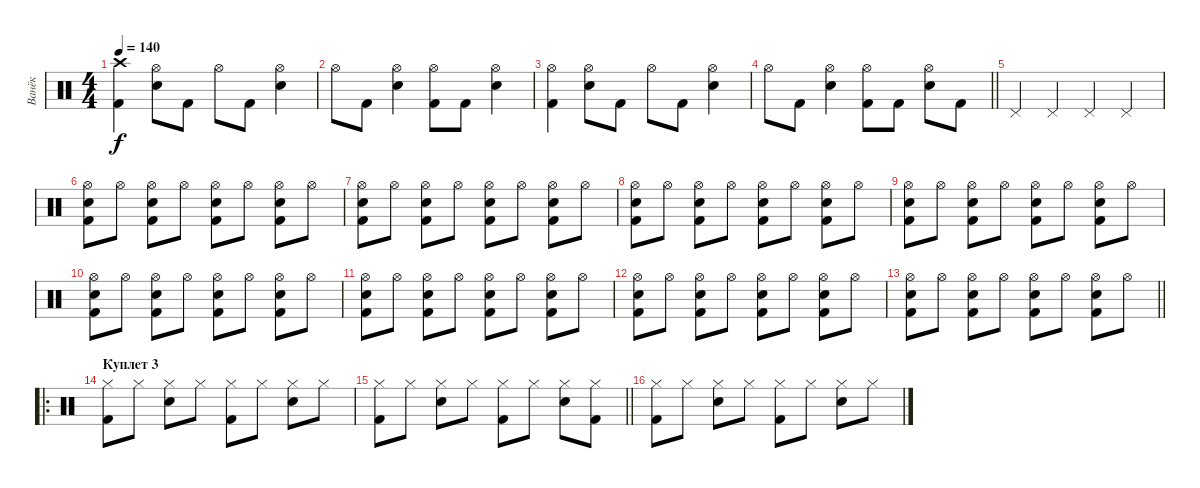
\track ("Ванёк" "Ванёк") {instrument percussion}
\staff {score}
\articulation defaults
\ts (4 4)
\tempo 140
\clef neutral
\ks c
("Crash high (hit)" "Kick (hit) 2").4{dy f} ("Hi-Hat (open)" "Electric Snare (hit)").8 "Kick (hit) 2".8 "Hi-Hat (open)".8 "Kick (hit) 2".8 ("Hi-Hat (open)" "Electric Snare (hit)").4 |
"Hi-Hat (open)".8 "Kick (hit) 2".8 ("Hi-Hat (open)" "Electric Snare (hit)").4 ("Hi-Hat (open)" "Kick (hit) 2").8 "Kick (hit) 2".8 ("Hi-Hat (open)" "Electric Snare (hit)").4 |
("Hi-Hat (open)" "Kick (hit) 2").4 ("Hi-Hat (open)" "Electric Snare (hit)").8 "Kick (hit) 2".8 "Hi-Hat (open)".8 "Kick (hit) 2".8 ("Hi-Hat (open)" "Electric Snare (hit)").4 |
\barLineRight lightlight "Hi-Hat (open)".8 "Kick (hit) 2".8
("Hi-Hat (open)" "Electric Snare (hit)").4 ("Hi-Hat (open)" "Kick (hit) 2").8 "Kick (hit) 2".8 ("Hi-Hat (open)" "Electric Snare (hit)").8 "Kick (hit) 2".8 |
"Pedal Hi-Hat (hit)".4 "Pedal Hi-Hat (hit)".4 "Pedal Hi-Hat (hit)".4 "Pedal Hi-Hat (hit)".4 |
("Hi-Hat (open)" "Electric Snare (hit)" "Kick (hit) 2").8 "Hi-Hat (open)".8 ("Hi-Hat (open)" "Electric Snare (hit)" "Kick (hit) 2").8 "Hi-Hat (open)".8 ("Hi-Hat (open)" "Electric Snare (hit)" "Kick (hit) 2").8 "Hi-Hat (open)".8 ("Hi-Hat (open)" "Electric Snare (hit)" "Kick (hit) 2").8 "Hi-Hat (open)".8 |
("Hi-Hat (open)" "Electric Snare (hit)" "Kick (hit) 2").8 "Hi-Hat (open)".8 ("Hi-Hat (open)" "Electric Snare (hit)" "Kick (hit) 2").8 "Hi-Hat (open)".8 ("Hi-Hat (open)" "Electric Snare (hit)" "Kick (hit) 2").8 "Hi-Hat (open)".8 ("Hi-Hat (open)" "Electric Snare (hit)" "Kick (hit) 2").8 "Hi-Hat (open)".8 |
("Hi-Hat (open)" "Electric Snare (hit)" "Kick (hit) 2").8 "Hi-Hat (open)".8 ("Hi-Hat (open)" "Electric Snare (hit)" "Kick (hit) 2").8 "Hi-Hat (open)".8 ("Hi-Hat (open)" "Electric Snare (hit)" "Kick (hit) 2").8 "Hi-Hat (open)".8 ("Hi-Hat (open)" "Electric Snare (hit)" "Kick (hit) 2").8 "Hi-Hat (open)".8 |
("Hi-Hat (open)" "Electric Snare (hit)" "Kick (hit) 2").8 "Hi-Hat (open)".8 ("Hi-Hat (open)" "Electric Snare (hit)" "Kick (hit) 2").8 "Hi-Hat (open)".8 ("Hi-Hat (open)" "Electric Snare (hit)" "Kick (hit) 2").8 "Hi-Hat (open)".8 ("Hi-Hat (open)" "Electric Snare (hit)" "Kick (hit) 2").8 "Hi-Hat (open)".8 |
("Hi-Hat (open)" "Electric Snare (hit)" "Kick (hit) 2").8 "Hi-Hat (open)".8 ("Hi-Hat (open)" "Electric Snare (hit)" "Kick (hit) 2").8 "Hi-Hat (open)".8 ("Hi-Hat (open)" "Electric Snare (hit)" "Kick (hit) 2").8 "Hi-Hat (open)".8 ("Hi-Hat (open)" "Electric Snare (hit)" "Kick (hit) 2").8 "Hi-Hat (open)".8 |
("Hi-Hat (open)" "Electric Snare (hit)" "Kick (hit) 2").8 "Hi-Hat (open)".8 ("Hi-Hat (open)" "Electric Snare (hit)" "Kick (hit) 2").8 "Hi-Hat (open)".8 ("Hi-Hat (open)" "Electric Snare (hit)" "Kick (hit) 2").8 "Hi-Hat (open)".8 ("Hi-Hat (open)" "Electric Snare (hit)" "Kick (hit) 2").8 "Hi-Hat (open)".8 |
("Hi-Hat (open)" "Electric Snare (hit)" "Kick (hit) 2").8 "Hi-Hat (open)".8 ("Hi-Hat (open)" "Electric Snare (hit)" "Kick (hit) 2").8 "Hi-Hat (open)".8 ("Hi-Hat (open)" "Electric Snare (hit)" "Kick (hit) 2").8 "Hi-Hat (open)".8 ("Hi-Hat (open)" "Electric Snare (hit)" "Kick (hit) 2").8 "Hi-Hat (open)".8 |
\barLineRight lightlight
("Hi-Hat (open)" "Electric Snare (hit)" "Kick (hit) 2").8 "Hi-Hat (open)".8 ("Hi-Hat (open)" "Electric Snare (hit)" "Kick (hit) 2").8 "Hi-Hat (open)".8 ("Hi-Hat (open)" "Electric Snare (hit)" "Kick (hit) 2").8 "Hi-Hat (open)".8 ("Hi-Hat (open)" "Electric Snare (hit)" "Kick (hit) 2").8 "Hi-Hat (open)".8 |
\ro
\section ("" "Куплет 3")
("Hi-Hat (closed)" "Kick (hit) 2").8 "Hi-Hat (closed)".8 ("Hi-Hat (closed)" "Electric Snare (hit)").8 "Hi-Hat (closed)".8 ("Hi-Hat (closed)" "Kick (hit) 2").8 "Hi-Hat (closed)".8 ("Hi-Hat (closed)" "Electric Snare (hit)").8 "Hi-Hat (closed)".8 |
\barLineRight lightlight
("Hi-Hat (closed)" "Kick (hit) 2").8 "Hi-Hat (closed)".8 ("Hi-Hat (closed)" "Electric Snare (hit)").8 "Hi-Hat (closed)".8 ("Hi-Hat (closed)" "Kick (hit) 2").8 "Hi-Hat (closed)".8 ("Hi-Hat (closed)" "Electric Snare (hit)").8 ("Hi-Hat (closed)" "Kick (hit) 2").8 |
("Hi-Hat (closed)" "Kick (hit) 2").8 "Hi-Hat (closed)".8 ("Hi-Hat (closed)" "Electric Snare (hit)").8 "Hi-Hat (closed)".8 ("Hi-Hat (closed)" "Kick (hit) 2").8 "Hi-Hat (closed)".8 ("Hi-Hat (closed)" "Electric Snare (hit)").8 "Hi-Hat (closed)".8
